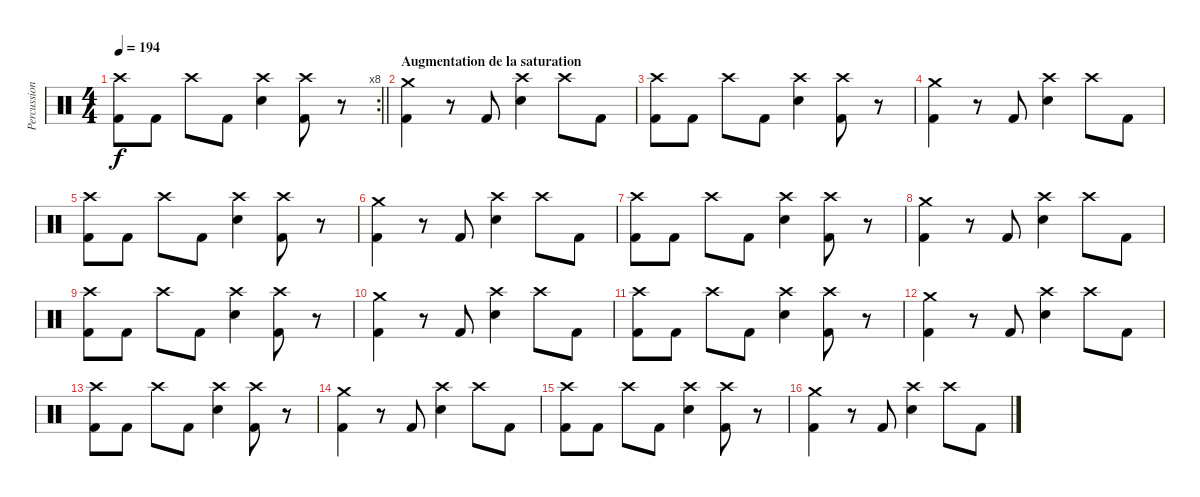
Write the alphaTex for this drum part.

\track ("Percussions" "Percussion") {instrument percussion}
\staff {score}
\articulation defaults
\rc 8
\ts (4 4)
\tempo 194
\clef neutral
\barLineRight lightlight
\ks c
("Crash high (hit)" "Kick (hit) 2").8{dy f} "Kick (hit) 2".8 "Crash high (hit)".8 "Kick (hit) 2".8 ("Crash high (hit)" "Electric Snare (hit)").4 ("Crash high (hit)" "Kick (hit) 2").8 r.8 |
\section ("" "Augmentation de la saturation")
("Crash medium (hit)" "Kick (hit) 2").4 r.8 "Kick (hit) 2".8 ("Crash high (hit)" "Electric Snare (hit)").4 "Crash high (hit)".8 "Kick (hit) 2".8 |
("Crash high (hit)" "Kick (hit) 2").8 "Kick (hit) 2".8 "Crash high (hit)".8 "Kick (hit) 2".8 ("Crash high (hit)" "Electric Snare (hit)").4 ("Crash high (hit)" "Kick (hit) 2").8 r.8 |
("Crash medium (hit)" "Kick (hit) 2").4 r.8 "Kick (hit) 2".8 ("Crash high (hit)" "Electric Snare (hit)").4 "Crash high (hit)".8 "Kick (hit) 2".8 |
("Crash high (hit)" "Kick (hit) 2").8 "Kick (hit) 2".8 "Crash high (hit)".8 "Kick (hit) 2".8 ("Crash high (hit)" "Electric Snare (hit)").4 ("Crash high (hit)" "Kick (hit) 2").8 r.8 |
("Crash medium (hit)" "Kick (hit) 2").4 r.8 "Kick (hit) 2".8 ("Crash high (hit)" "Electric Snare (hit)").4 "Crash high (hit)".8 "Kick (hit) 2".8 |
("Crash high (hit)" "Kick (hit) 2").8 "Kick (hit) 2".8 "Crash high (hit)".8 "Kick (hit) 2".8 ("Crash high (hit)" "Electric Snare (hit)").4 ("Crash high (hit)" "Kick (hit) 2").8 r.8 |
("Crash medium (hit)" "Kick (hit) 2").4 r.8 "Kick (hit) 2".8 ("Crash high (hit)" "Electric Snare (hit)").4 "Crash high (hit)".8 "Kick (hit) 2".8 |
("Crash high (hit)" "Kick (hit) 2").8 "Kick (hit) 2".8 "Crash high (hit)".8 "Kick (hit) 2".8 ("Crash high (hit)" "Electric Snare (hit)").4 ("Crash high (hit)" "Kick (hit) 2").8 r.8 |
("Crash medium (hit)" "Kick (hit) 2").4 r.8 "Kick (hit) 2".8 ("Crash high (hit)" "Electric Snare (hit)").4 "Crash high (hit)".8 "Kick (hit) 2".8 |
("Crash high (hit)" "Kick (hit) 2").8 "Kick (hit) 2".8 "Crash high (hit)".8 "Kick (hit) 2".8 ("Crash high (hit)" "Electric Snare (hit)").4 ("Crash high (hit)" "Kick (hit) 2").8 r.8 |
("Crash medium (hit)" "Kick (hit) 2").4 r.8 "Kick (hit) 2".8 ("Crash high (hit)" "Electric Snare (hit)").4 "Crash high (hit)".8 "Kick (hit) 2".8 |
("Crash high (hit)" "Kick (hit) 2").8 "Kick (hit) 2".8 "Crash high (hit)".8 "Kick (hit) 2".8 ("Crash high (hit)" "Electric Snare (hit)").4 ("Crash high (hit)" "Kick (hit) 2").8 r.8 |
("Crash medium (hit)" "Kick (hit) 2").4 r.8 "Kick (hit) 2".8 ("Crash high (hit)" "Electric Snare (hit)").4 "Crash high (hit)".8 "Kick (hit) 2".8 |
("Crash high (hit)" "Kick (hit) 2").8 "Kick (hit) 2".8 "Crash high (hit)".8 "Kick (hit) 2".8 ("Crash high (hit)" "Electric Snare (hit)").4 ("Crash high (hit)" "Kick (hit) 2").8 r.8 |
("Crash medium (hit)" "Kick (hit) 2").4 r.8 "Kick (hit) 2".8 ("Crash high (hit)" "Electric Snare (hit)").4 "Crash high (hit)".8 "Kick (hit) 2".8
